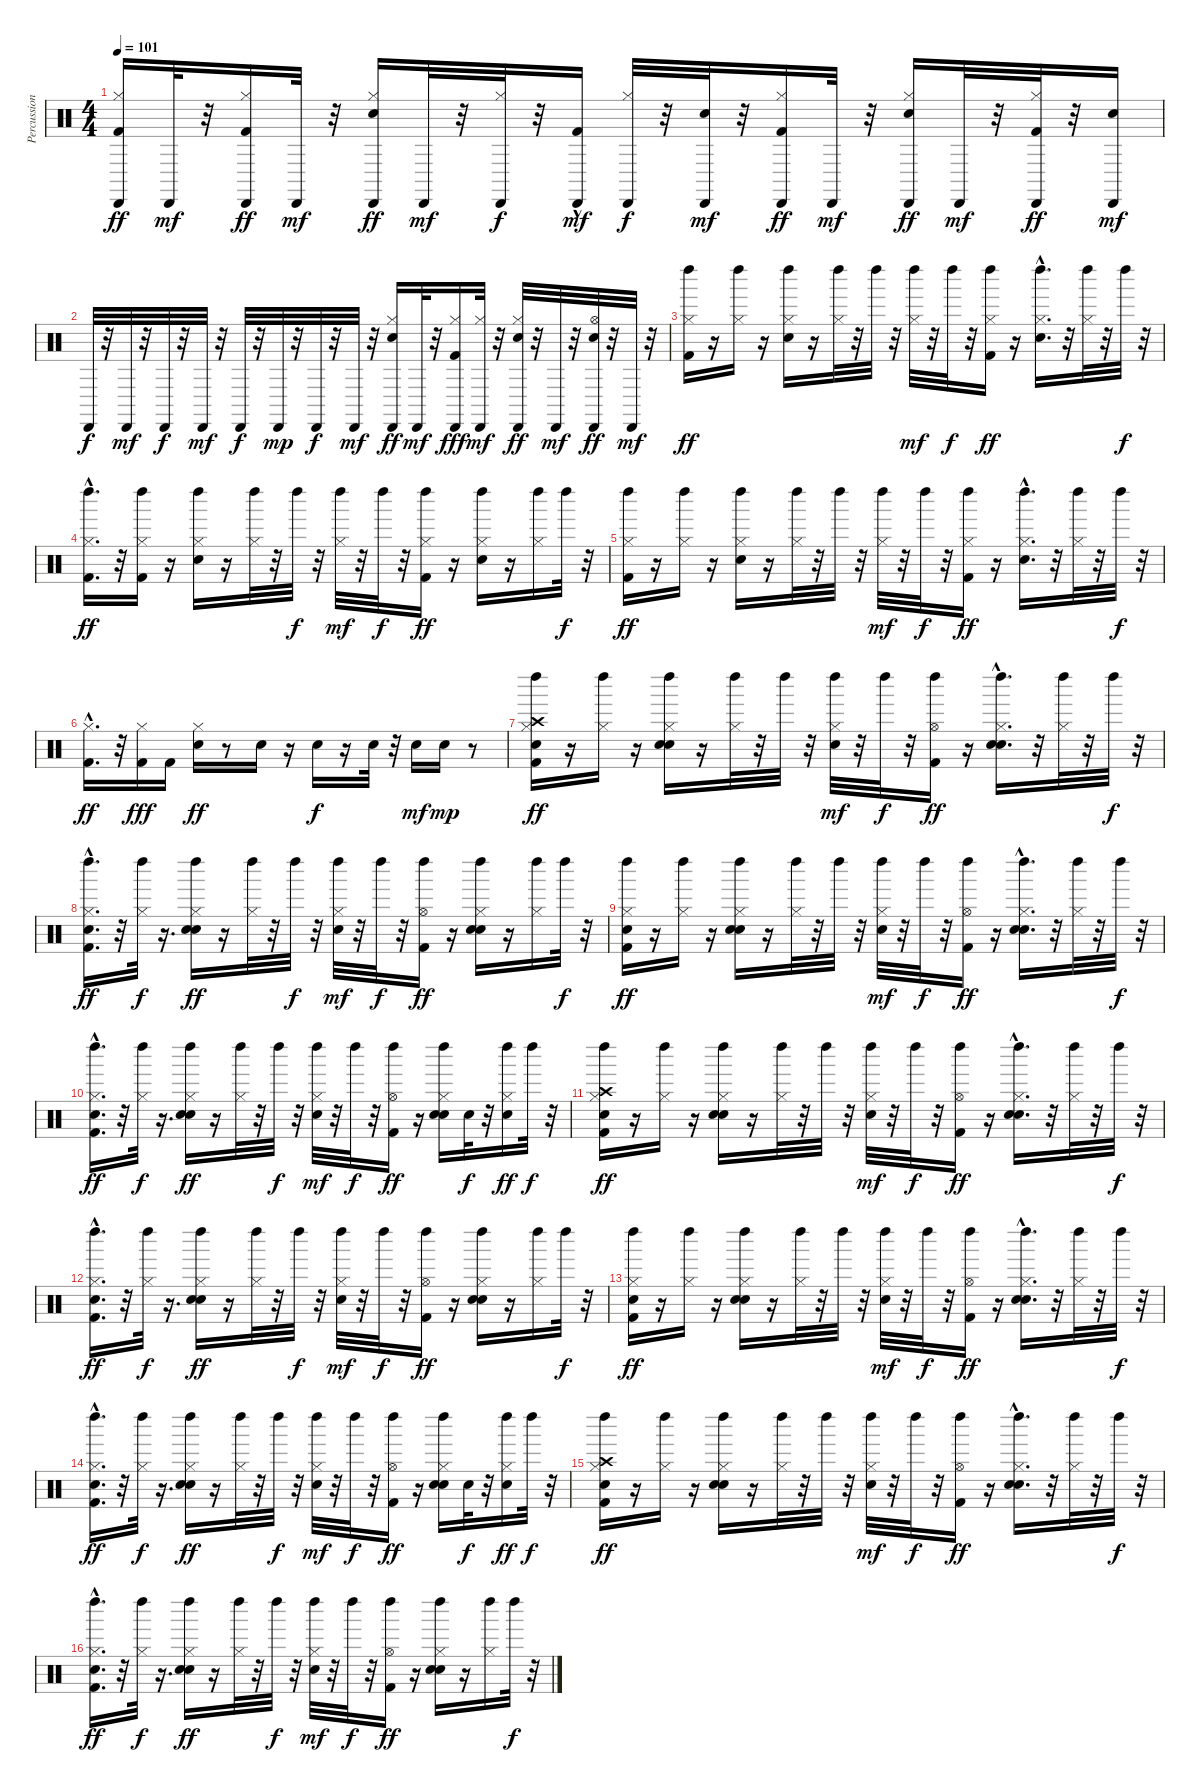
\track ("Percussion" "Percussion") {instrument percussion}
\staff {score}
\articulation defaults
\ts (4 4)
\tempo 101
\clef neutral
\ks c
("Kick (hit) 2" "Hi-Hat (closed)" "Cabasa (hit)").16{dy ff} "Cabasa (hit)".32{dy mf} r.32 ("Kick (hit) 2" "Hi-Hat (closed)" "Cabasa (hit)").16{dy ff} "Cabasa (hit)".32{dy mf} r.32 ("Snare (hit) 2" "Hi-Hat (closed)" "Cabasa (hit)").16{dy ff} "Cabasa (hit)".32{dy mf} r.32 ("Hi-Hat (closed)" "Cabasa (hit)").32{dy f} r.32 ("Kick (hit) 2"{hac} "Cabasa (hit)").16{dy mf} ("Hi-Hat (closed)" "Cabasa (hit)").32{dy f} r.32 ("Snare (hit) 2" "Cabasa (hit)").32{dy mf} r.32 ("Kick (hit) 2" "Hi-Hat (closed)" "Cabasa (hit)").16{dy ff} "Cabasa (hit)".32{dy mf} r.32 ("Snare (hit) 2" "Hi-Hat (closed)" "Cabasa (hit)").16{dy ff} "Cabasa (hit)".32{dy mf} r.32 ("Kick (hit) 2" "Hi-Hat (closed)" "Cabasa (hit)").32{dy ff} r.32 ("Snare (hit) 2" "Cabasa (hit)").16{dy mf} |
"Cabasa (hit)".32{dy f} r.32 "Cabasa (hit)".32{dy mf} r.32 "Cabasa (hit)".32{dy f} r.32 "Cabasa (hit)".32{dy mf} r.32 "Cabasa (hit)".32{dy f} r.32 "Cabasa (hit)".32{dy mp} r.32 "Cabasa (hit)".32{dy f} r.32 "Cabasa (hit)".32{dy mf} r.32 ("Snare (hit) 2" "Hi-Hat (closed)" "Cabasa (hit)").16{dy ff} "Cabasa (hit)".32{dy mf} r.32 ("Kick (hit) 2" "Hi-Hat (closed)" "Cabasa (hit)").16{dy fff} ("Hi-Hat (closed)" "Cabasa (hit)").32{dy mf} r.32 ("Snare (hit) 2" "Hi-Hat (closed)" "Cabasa (hit)").32{dy ff} r.32 "Cabasa (hit)".32{dy mf} r.32 ("Snare (hit) 2" "Hi-Hat (open)" "Cabasa (hit)").32{dy ff} r.32 "Cabasa (hit)".32{dy mf} r.32 |
("Kick (hit) 2" "Hi-Hat (closed)" "Left Maraca (hit)").16{dy ff} r.16 ("Hi-Hat (closed)" "Left Maraca (hit)").16 r.16 ("Snare (hit) 2" "Hi-Hat (closed)" "Left Maraca (hit)").16 r.16 ("Hi-Hat (closed)" "Left Maraca (hit)").32 r.32 "Left Maraca (hit)".32 r.32 ("Hi-Hat (closed)" "Left Maraca (hit)").32{dy mf} r.32 "Left Maraca (hit)".32{dy f} r.32 ("Kick (hit) 2" "Hi-Hat (closed)" "Left Maraca (hit)").16{dy ff} r.16 ("Snare (hit) 2"{hac} "Hi-Hat (closed)" "Left Maraca (hit)").16{d} r.32 ("Hi-Hat (closed)" "Left Maraca (hit)").32 r.32 "Left Maraca (hit)".32{dy f} r.32 |
("Kick (hit) 2"{hac} "Hi-Hat (closed)" "Left Maraca (hit)").16{d dy ff} r.32 ("Kick (hit) 2" "Hi-Hat (closed)" "Left Maraca (hit)").16 r.16 ("Snare (hit) 2" "Hi-Hat (closed)" "Left Maraca (hit)").16 r.16 ("Hi-Hat (closed)" "Left Maraca (hit)").32 r.32 "Left Maraca (hit)".32{dy f} r.32 ("Hi-Hat (closed)" "Left Maraca (hit)").32{dy mf} r.32 "Left Maraca (hit)".32{dy f} r.32 ("Kick (hit) 2" "Hi-Hat (closed)" "Left Maraca (hit)").16{dy ff} r.16 ("Snare (hit) 2" "Hi-Hat (closed)" "Left Maraca (hit)").16 r.16 ("Hi-Hat (closed)" "Left Maraca (hit)").16 "Left Maraca (hit)".32{dy f} r.32 |
("Kick (hit) 2" "Hi-Hat (closed)" "Left Maraca (hit)").16{dy ff} r.16 ("Hi-Hat (closed)" "Left Maraca (hit)").16 r.16 ("Snare (hit) 2" "Hi-Hat (closed)" "Left Maraca (hit)").16 r.16 ("Hi-Hat (closed)" "Left Maraca (hit)").32 r.32 "Left Maraca (hit)".32 r.32 ("Hi-Hat (closed)" "Left Maraca (hit)").32{dy mf} r.32 "Left Maraca (hit)".32{dy f} r.32 ("Kick (hit) 2" "Hi-Hat (closed)" "Left Maraca (hit)").16{dy ff} r.16 ("Snare (hit) 2"{hac} "Hi-Hat (closed)" "Left Maraca (hit)").16{d} r.32 ("Hi-Hat (closed)" "Left Maraca (hit)").32 r.32 "Left Maraca (hit)".32{dy f} r.32 |
("Kick (hit) 2"{hac} "Hi-Hat (closed)").16{d dy ff} r.32 ("Kick (hit) 2" "Hi-Hat (closed)").16{dy fff} "Kick (hit) 2".16 ("Snare (hit) 2" "Hi-Hat (closed)").16{dy ff} r.8 "Snare (hit) 2".16 r.16 "Snare (hit) 2".16{dy f} r.16 "Snare (hit) 2".32 r.32 "Snare (hit) 2".16{dy mf} "Snare (hit) 2".16{dy mp} r.8 |
("Kick (hit) 2" "Hand Clap (hit)" "Hi-Hat (closed)" "Crash high (hit)" "Left Maraca (hit)").16{dy ff} r.16 ("Hi-Hat (closed)" "Left Maraca (hit)").16 r.16 ("Snare (hit) 2" "Hand Clap (hit)" "Hi-Hat (closed)" "Left Maraca (hit)").16 r.16 ("Hi-Hat (closed)" "Left Maraca (hit)").32 r.32 "Left Maraca (hit)".32 r.32 ("Hand Clap (hit)" "Hi-Hat (closed)" "Left Maraca (hit)").32{dy mf} r.32 "Left Maraca (hit)".32{dy f} r.32 ("Kick (hit) 2" "Hi-Hat (open)" "Left Maraca (hit)").16{dy ff} r.16 ("Snare (hit) 2"{hac} "Hand Clap (hit)" "Hi-Hat (closed)" "Left Maraca (hit)").16{d} r.32 ("Hi-Hat (closed)" "Left Maraca (hit)").32 r.32 "Left Maraca (hit)".32{dy f} r.32 |
("Kick (hit) 2"{hac} "Hand Clap (hit)" "Hi-Hat (closed)" "Left Maraca (hit)").16{d dy ff} r.32 ("Hi-Hat (closed)" "Left Maraca (hit)").32{dy f} r.16{d} ("Snare (hit) 2" "Hand Clap (hit)" "Hi-Hat (closed)" "Left Maraca (hit)").16{dy ff} r.16 ("Hi-Hat (closed)" "Left Maraca (hit)").32 r.32 "Left Maraca (hit)".32{dy f} r.32 ("Hand Clap (hit)" "Hi-Hat (closed)" "Left Maraca (hit)").32{dy mf} r.32 "Left Maraca (hit)".32{dy f} r.32 ("Kick (hit) 2" "Hi-Hat (open)" "Left Maraca (hit)").16{dy ff} r.16 ("Snare (hit) 2" "Hand Clap (hit)" "Hi-Hat (closed)" "Left Maraca (hit)").16 r.16 ("Hi-Hat (closed)" "Left Maraca (hit)").16 "Left Maraca (hit)".32{dy f} r.32 |
("Kick (hit) 2" "Hand Clap (hit)" "Hi-Hat (closed)" "Left Maraca (hit)").16{dy ff} r.16 ("Hi-Hat (closed)" "Left Maraca (hit)").16 r.16 ("Snare (hit) 2" "Hand Clap (hit)" "Hi-Hat (closed)" "Left Maraca (hit)").16 r.16 ("Hi-Hat (closed)" "Left Maraca (hit)").32 r.32 "Left Maraca (hit)".32 r.32 ("Hand Clap (hit)" "Hi-Hat (closed)" "Left Maraca (hit)").32{dy mf} r.32 "Left Maraca (hit)".32{dy f} r.32 ("Kick (hit) 2" "Hi-Hat (open)" "Left Maraca (hit)").16{dy ff} r.16 ("Snare (hit) 2"{hac} "Hand Clap (hit)" "Hi-Hat (closed)" "Left Maraca (hit)").16{d} r.32 ("Hi-Hat (closed)" "Left Maraca (hit)").32 r.32 "Left Maraca (hit)".32{dy f} r.32 |
("Kick (hit) 2"{hac} "Hand Clap (hit)" "Hi-Hat (closed)" "Left Maraca (hit)").16{d dy ff} r.32 ("Hi-Hat (closed)" "Left Maraca (hit)").32{dy f} r.16{d} ("Snare (hit) 2" "Hand Clap (hit)" "Hi-Hat (closed)" "Left Maraca (hit)").16{dy ff} r.16 ("Hi-Hat (closed)" "Left Maraca (hit)").32 r.32 "Left Maraca (hit)".32{dy f} r.32 ("Hand Clap (hit)" "Hi-Hat (closed)" "Left Maraca (hit)").32{dy mf} r.32 "Left Maraca (hit)".32{dy f} r.32 ("Kick (hit) 2" "Hi-Hat (open)" "Left Maraca (hit)").16{dy ff} r.16 ("Snare (hit) 2" "Hand Clap (hit)" "Hi-Hat (closed)" "Left Maraca (hit)").16 "Snare (hit) 2".32{dy f} r.32 ("Snare (hit) 2" "Hi-Hat (closed)" "Left Maraca (hit)").16{dy ff} "Left Maraca (hit)".32{dy f} r.32 |
("Kick (hit) 2" "Hand Clap (hit)" "Hi-Hat (closed)" "Crash high (hit)" "Left Maraca (hit)").16{dy ff} r.16 ("Hi-Hat (closed)" "Left Maraca (hit)").16 r.16 ("Snare (hit) 2" "Hand Clap (hit)" "Hi-Hat (closed)" "Left Maraca (hit)").16 r.16 ("Hi-Hat (closed)" "Left Maraca (hit)").32 r.32 "Left Maraca (hit)".32 r.32 ("Hand Clap (hit)" "Hi-Hat (closed)" "Left Maraca (hit)").32{dy mf} r.32 "Left Maraca (hit)".32{dy f} r.32 ("Kick (hit) 2" "Hi-Hat (open)" "Left Maraca (hit)").16{dy ff} r.16 ("Snare (hit) 2"{hac} "Hand Clap (hit)" "Hi-Hat (closed)" "Left Maraca (hit)").16{d} r.32 ("Hi-Hat (closed)" "Left Maraca (hit)").32 r.32 "Left Maraca (hit)".32{dy f} r.32 |
("Kick (hit) 2"{hac} "Hand Clap (hit)" "Hi-Hat (closed)" "Left Maraca (hit)").16{d dy ff} r.32 ("Hi-Hat (closed)" "Left Maraca (hit)").32{dy f} r.16{d} ("Snare (hit) 2" "Hand Clap (hit)" "Hi-Hat (closed)" "Left Maraca (hit)").16{dy ff} r.16 ("Hi-Hat (closed)" "Left Maraca (hit)").32 r.32 "Left Maraca (hit)".32{dy f} r.32 ("Hand Clap (hit)" "Hi-Hat (closed)" "Left Maraca (hit)").32{dy mf} r.32 "Left Maraca (hit)".32{dy f} r.32 ("Kick (hit) 2" "Hi-Hat (open)" "Left Maraca (hit)").16{dy ff} r.16 ("Snare (hit) 2" "Hand Clap (hit)" "Hi-Hat (closed)" "Left Maraca (hit)").16 r.16 ("Hi-Hat (closed)" "Left Maraca (hit)").16 "Left Maraca (hit)".32{dy f} r.32 |
("Kick (hit) 2" "Hand Clap (hit)" "Hi-Hat (closed)" "Left Maraca (hit)").16{dy ff} r.16 ("Hi-Hat (closed)" "Left Maraca (hit)").16 r.16 ("Snare (hit) 2" "Hand Clap (hit)" "Hi-Hat (closed)" "Left Maraca (hit)").16 r.16 ("Hi-Hat (closed)" "Left Maraca (hit)").32 r.32 "Left Maraca (hit)".32 r.32 ("Hand Clap (hit)" "Hi-Hat (closed)" "Left Maraca (hit)").32{dy mf} r.32 "Left Maraca (hit)".32{dy f} r.32 ("Kick (hit) 2" "Hi-Hat (open)" "Left Maraca (hit)").16{dy ff} r.16 ("Snare (hit) 2"{hac} "Hand Clap (hit)" "Hi-Hat (closed)" "Left Maraca (hit)").16{d} r.32 ("Hi-Hat (closed)" "Left Maraca (hit)").32 r.32 "Left Maraca (hit)".32{dy f} r.32 |
("Kick (hit) 2"{hac} "Hand Clap (hit)" "Hi-Hat (closed)" "Left Maraca (hit)").16{d dy ff} r.32 ("Hi-Hat (closed)" "Left Maraca (hit)").32{dy f} r.16{d} ("Snare (hit) 2" "Hand Clap (hit)" "Hi-Hat (closed)" "Left Maraca (hit)").16{dy ff} r.16 ("Hi-Hat (closed)" "Left Maraca (hit)").32 r.32 "Left Maraca (hit)".32{dy f} r.32 ("Hand Clap (hit)" "Hi-Hat (closed)" "Left Maraca (hit)").32{dy mf} r.32 "Left Maraca (hit)".32{dy f} r.32 ("Kick (hit) 2" "Hi-Hat (open)" "Left Maraca (hit)").16{dy ff} r.16 ("Snare (hit) 2" "Hand Clap (hit)" "Hi-Hat (closed)" "Left Maraca (hit)").16 "Snare (hit) 2".32{dy f} r.32 ("Snare (hit) 2" "Hi-Hat (closed)" "Left Maraca (hit)").16{dy ff} "Left Maraca (hit)".32{dy f} r.32 |
("Kick (hit) 2" "Hand Clap (hit)" "Hi-Hat (closed)" "Crash high (hit)" "Left Maraca (hit)").16{dy ff} r.16 ("Hi-Hat (closed)" "Left Maraca (hit)").16 r.16 ("Snare (hit) 2" "Hand Clap (hit)" "Hi-Hat (closed)" "Left Maraca (hit)").16 r.16 ("Hi-Hat (closed)" "Left Maraca (hit)").32 r.32 "Left Maraca (hit)".32 r.32 ("Hand Clap (hit)" "Hi-Hat (closed)" "Left Maraca (hit)").32{dy mf} r.32 "Left Maraca (hit)".32{dy f} r.32 ("Kick (hit) 2" "Hi-Hat (open)" "Left Maraca (hit)").16{dy ff} r.16 ("Snare (hit) 2"{hac} "Hand Clap (hit)" "Hi-Hat (closed)" "Left Maraca (hit)").16{d} r.32 ("Hi-Hat (closed)" "Left Maraca (hit)").32 r.32 "Left Maraca (hit)".32{dy f} r.32 |
("Kick (hit) 2"{hac} "Hand Clap (hit)" "Hi-Hat (closed)" "Left Maraca (hit)").16{d dy ff} r.32 ("Hi-Hat (closed)" "Left Maraca (hit)").32{dy f} r.16{d} ("Snare (hit) 2" "Hand Clap (hit)" "Hi-Hat (closed)" "Left Maraca (hit)").16{dy ff} r.16 ("Hi-Hat (closed)" "Left Maraca (hit)").32 r.32 "Left Maraca (hit)".32{dy f} r.32 ("Hand Clap (hit)" "Hi-Hat (closed)" "Left Maraca (hit)").32{dy mf} r.32 "Left Maraca (hit)".32{dy f} r.32 ("Kick (hit) 2" "Hi-Hat (open)" "Left Maraca (hit)").16{dy ff} r.16 ("Snare (hit) 2" "Hand Clap (hit)" "Hi-Hat (closed)" "Left Maraca (hit)").16 r.16 ("Hi-Hat (closed)" "Left Maraca (hit)").16 "Left Maraca (hit)".32{dy f} r.32
